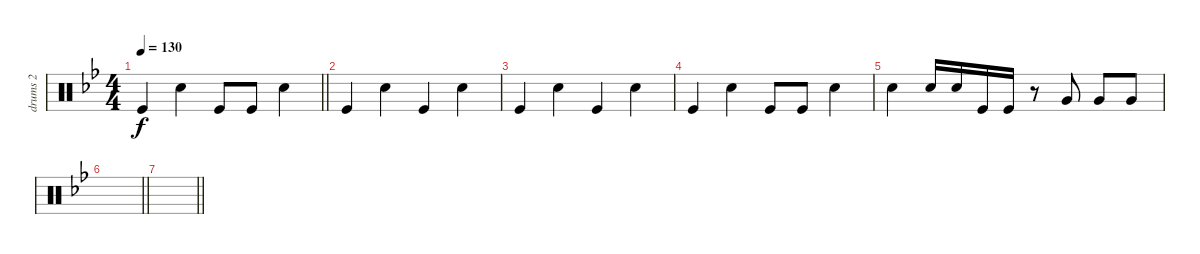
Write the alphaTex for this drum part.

\track ("drums 2" "drums 2") {instrument percussion}
\staff {score}
\articulation defaults
\ts (4 4)
\tempo 130
\clef neutral
\barLineRight lightlight
\ks bb "Kick (hit)".4{dy f} "Snare (hit) 2".4 "Kick (hit)".8 "Kick (hit)".8 "Snare (hit) 2".4
|
"Kick (hit)".4 "Snare (hit) 2".4 "Kick (hit)".4 "Snare (hit) 2".4 |
"Kick (hit)".4 "Snare (hit) 2".4 "Kick (hit)".4 "Snare (hit) 2".4 |
"Kick (hit)".4 "Snare (hit) 2".4 "Kick (hit)".8 "Kick (hit)".8 "Snare (hit) 2".4 |
"Snare (hit) 2".4 "Snare (hit) 2".16 "Snare (hit) 2".16 "Kick (hit)".16 "Kick (hit)".16 r.8 "Very Low Tom (hit)".8 "Very Low Tom (hit)".8 "Very Low Tom (hit)".8 |
\barLineRight lightlight
|
\barLineRight lightlight
